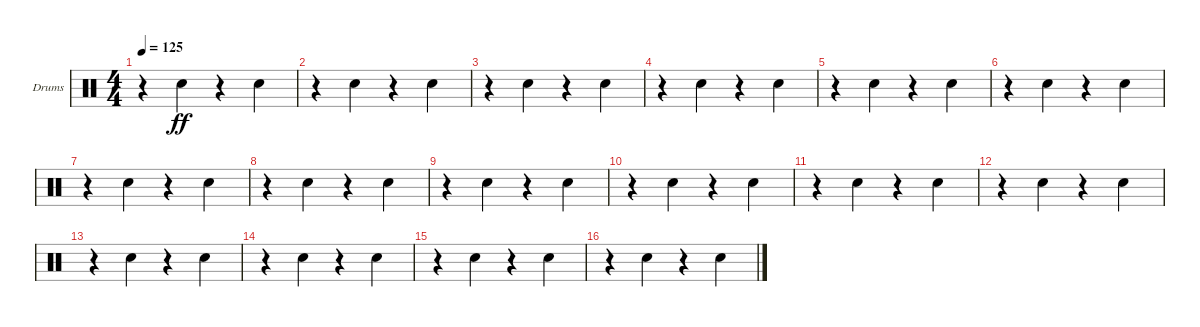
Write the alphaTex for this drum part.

\defaultSystemsLayout 4
\bracketExtendMode groupsimilarinstruments
\firstSystemTrackNameOrientation horizontal
\otherSystemsTrackNameOrientation horizontal
\track ("Drumkit" "Drums") {instrument percussion}
\staff {score}
\articulation defaults
\ts (4 4)
\tempo 125
\clef neutral
\scale
0.333333
\ks c
r.4{dy ff} "Snare (hit) 2".4 r.4 "Snare (hit) 2".4 |
\scale
0.333333 r.4 "Snare (hit) 2".4 r.4 "Snare (hit) 2".4 |
\scale
0.333333 r.4 "Snare (hit) 2".4 r.4 "Snare (hit) 2".4 |
\scale
0.333333 r.4 "Snare (hit) 2".4 r.4 "Snare (hit) 2".4 |
\scale
0.333333 r.4 "Snare (hit) 2".4 r.4 "Snare (hit) 2".4 |
\scale
0.333333 r.4 "Snare (hit) 2".4 r.4 "Snare (hit) 2".4 |
\scale
0.333333 r.4 "Snare (hit) 2".4 r.4 "Snare (hit) 2".4 |
\scale
0.333333 r.4 "Snare (hit) 2".4 r.4 "Snare (hit) 2".4 |
\scale
0.333333 r.4 "Snare (hit) 2".4 r.4 "Snare (hit) 2".4 |
\scale
0.333333 r.4 "Snare (hit) 2".4 r.4 "Snare (hit) 2".4 |
\scale
0.333333 r.4 "Snare (hit) 2".4 r.4 "Snare (hit) 2".4 |
\scale
0.333333 r.4 "Snare (hit) 2".4 r.4 "Snare (hit) 2".4 |
\scale
0.333333 r.4 "Snare (hit) 2".4 r.4 "Snare (hit) 2".4 |
\scale
0.333333 r.4 "Snare (hit) 2".4 r.4 "Snare (hit) 2".4 |
r.4 "Snare (hit) 2".4 r.4 "Snare (hit) 2".4 |
r.4 "Snare (hit) 2".4 r.4 "Snare (hit) 2".4
